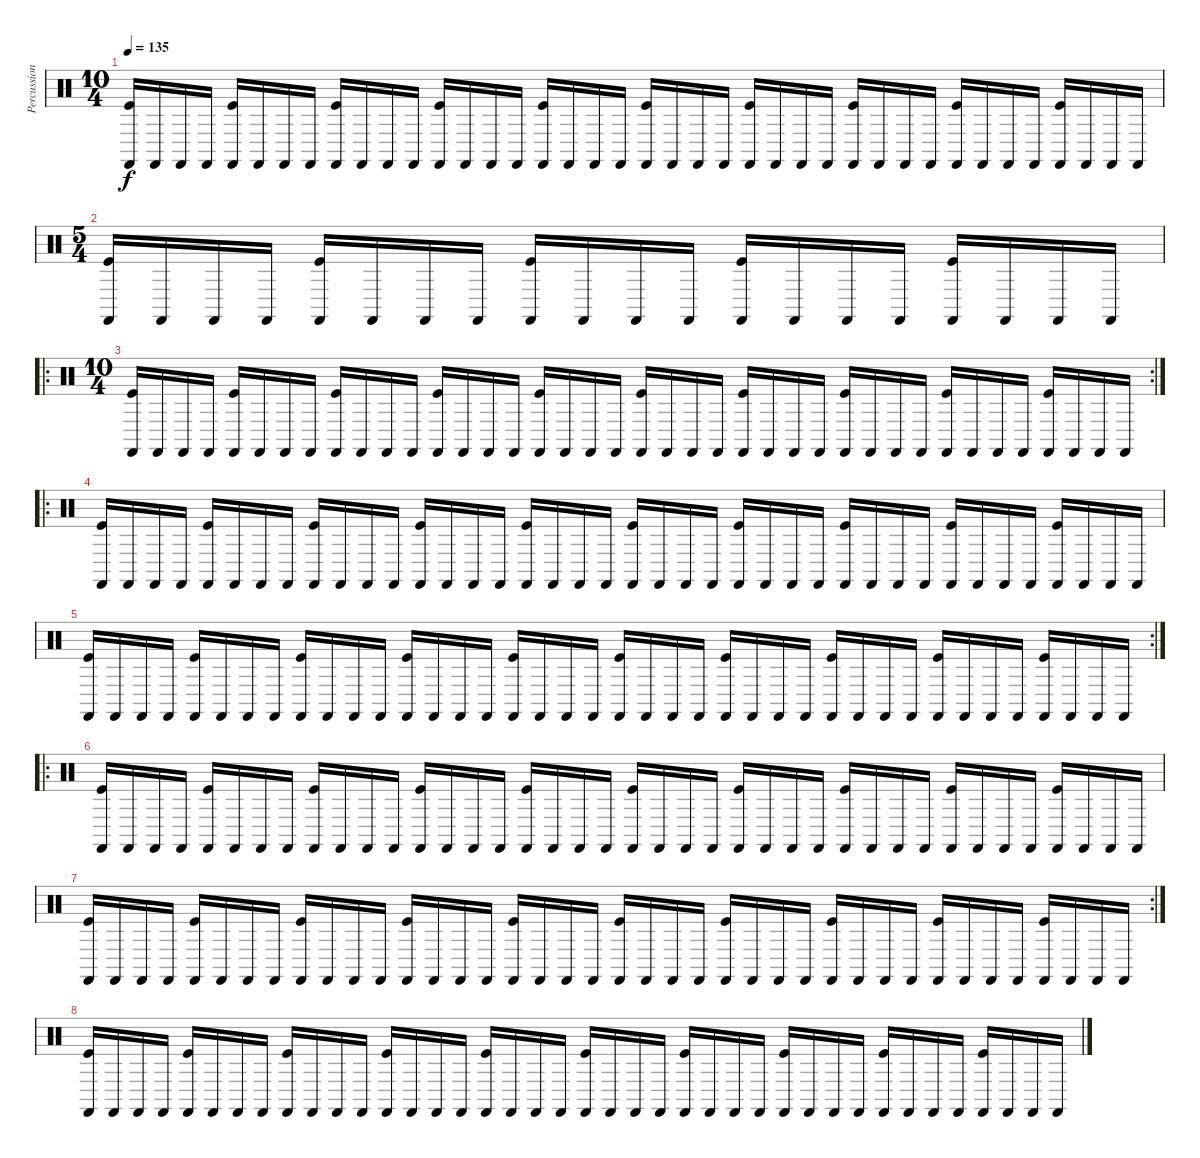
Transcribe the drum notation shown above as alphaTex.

\track ("Percussion" "Percussion") {instrument percussion}
\staff {score}
\articulation defaults
\ts (10 4)
\tempo 135
\clef neutral
\ks c
("Kick (hit)" "Castanets (hit)").16{dy f} "Castanets (hit)".16 "Castanets (hit)".16 "Castanets (hit)".16 ("Kick (hit)" "Castanets (hit)").16 "Castanets (hit)".16 "Castanets (hit)".16 "Castanets (hit)".16 ("Kick (hit)" "Castanets (hit)").16 "Castanets (hit)".16 "Castanets (hit)".16 "Castanets (hit)".16 ("Kick (hit)" "Castanets (hit)").16 "Castanets (hit)".16 "Castanets (hit)".16 "Castanets (hit)".16 ("Kick (hit)" "Castanets (hit)").16 "Castanets (hit)".16 "Castanets (hit)".16 "Castanets (hit)".16 ("Kick (hit)" "Castanets (hit)").16 "Castanets (hit)".16 "Castanets (hit)".16 "Castanets (hit)".16 ("Kick (hit)" "Castanets (hit)").16 "Castanets (hit)".16 "Castanets (hit)".16 "Castanets (hit)".16 ("Kick (hit)" "Castanets (hit)").16 "Castanets (hit)".16 "Castanets (hit)".16 "Castanets (hit)".16 ("Kick (hit)" "Castanets (hit)").16 "Castanets (hit)".16 "Castanets (hit)".16 "Castanets (hit)".16 ("Kick (hit)" "Castanets (hit)").16 "Castanets (hit)".16 "Castanets (hit)".16 "Castanets (hit)".16 |
\ts (5 4)
("Kick (hit)" "Castanets (hit)").16 "Castanets (hit)".16 "Castanets (hit)".16 "Castanets (hit)".16 ("Kick (hit)" "Castanets (hit)").16 "Castanets (hit)".16 "Castanets (hit)".16 "Castanets (hit)".16 ("Kick (hit)" "Castanets (hit)").16 "Castanets (hit)".16 "Castanets (hit)".16 "Castanets (hit)".16 ("Kick (hit)" "Castanets (hit)").16 "Castanets (hit)".16 "Castanets (hit)".16 "Castanets (hit)".16 ("Kick (hit)" "Castanets (hit)").16 "Castanets (hit)".16 "Castanets (hit)".16 "Castanets (hit)".16 |
\ro
\rc 2
\ts (10 4)
("Kick (hit)" "Castanets (hit)").16 "Castanets (hit)".16 "Castanets (hit)".16 "Castanets (hit)".16 ("Kick (hit)" "Castanets (hit)").16 "Castanets (hit)".16 "Castanets (hit)".16 "Castanets (hit)".16 ("Kick (hit)" "Castanets (hit)").16 "Castanets (hit)".16 "Castanets (hit)".16 "Castanets (hit)".16 ("Kick (hit)" "Castanets (hit)").16 "Castanets (hit)".16 "Castanets (hit)".16 "Castanets (hit)".16 ("Kick (hit)" "Castanets (hit)").16 "Castanets (hit)".16 "Castanets (hit)".16 "Castanets (hit)".16 ("Kick (hit)" "Castanets (hit)").16 "Castanets (hit)".16 "Castanets (hit)".16 "Castanets (hit)".16 ("Kick (hit)" "Castanets (hit)").16 "Castanets (hit)".16 "Castanets (hit)".16 "Castanets (hit)".16 ("Kick (hit)" "Castanets (hit)").16 "Castanets (hit)".16 "Castanets (hit)".16 "Castanets (hit)".16 ("Kick (hit)" "Castanets (hit)").16 "Castanets (hit)".16 "Castanets (hit)".16 "Castanets (hit)".16 ("Kick (hit)" "Castanets (hit)").16 "Castanets (hit)".16 "Castanets (hit)".16 "Castanets (hit)".16 |
\ro
("Kick (hit)" "Castanets (hit)").16 "Castanets (hit)".16 "Castanets (hit)".16 "Castanets (hit)".16 ("Kick (hit)" "Castanets (hit)").16 "Castanets (hit)".16 "Castanets (hit)".16 "Castanets (hit)".16 ("Kick (hit)" "Castanets (hit)").16 "Castanets (hit)".16 "Castanets (hit)".16 "Castanets (hit)".16 ("Kick (hit)" "Castanets (hit)").16 "Castanets (hit)".16 "Castanets (hit)".16 "Castanets (hit)".16 ("Kick (hit)" "Castanets (hit)").16 "Castanets (hit)".16 "Castanets (hit)".16 "Castanets (hit)".16 ("Kick (hit)" "Castanets (hit)").16 "Castanets (hit)".16 "Castanets (hit)".16 "Castanets (hit)".16 ("Kick (hit)" "Castanets (hit)").16 "Castanets (hit)".16 "Castanets (hit)".16 "Castanets (hit)".16 ("Kick (hit)" "Castanets (hit)").16 "Castanets (hit)".16 "Castanets (hit)".16 "Castanets (hit)".16 ("Kick (hit)" "Castanets (hit)").16 "Castanets (hit)".16 "Castanets (hit)".16 "Castanets (hit)".16 ("Kick (hit)" "Castanets (hit)").16 "Castanets (hit)".16 "Castanets (hit)".16 "Castanets (hit)".16 |
\rc 2
("Kick (hit)" "Castanets (hit)").16 "Castanets (hit)".16 "Castanets (hit)".16 "Castanets (hit)".16 ("Kick (hit)" "Castanets (hit)").16 "Castanets (hit)".16 "Castanets (hit)".16 "Castanets (hit)".16 ("Kick (hit)" "Castanets (hit)").16 "Castanets (hit)".16 "Castanets (hit)".16 "Castanets (hit)".16 ("Kick (hit)" "Castanets (hit)").16 "Castanets (hit)".16 "Castanets (hit)".16 "Castanets (hit)".16 ("Kick (hit)" "Castanets (hit)").16 "Castanets (hit)".16 "Castanets (hit)".16 "Castanets (hit)".16 ("Kick (hit)" "Castanets (hit)").16 "Castanets (hit)".16 "Castanets (hit)".16 "Castanets (hit)".16 ("Kick (hit)" "Castanets (hit)").16 "Castanets (hit)".16 "Castanets (hit)".16 "Castanets (hit)".16 ("Kick (hit)" "Castanets (hit)").16 "Castanets (hit)".16 "Castanets (hit)".16 "Castanets (hit)".16 ("Kick (hit)" "Castanets (hit)").16 "Castanets (hit)".16 "Castanets (hit)".16 "Castanets (hit)".16 ("Kick (hit)" "Castanets (hit)").16 "Castanets (hit)".16 "Castanets (hit)".16 "Castanets (hit)".16 |
\ro
("Kick (hit)" "Castanets (hit)").16 "Castanets (hit)".16 "Castanets (hit)".16 "Castanets (hit)".16 ("Kick (hit)" "Castanets (hit)").16 "Castanets (hit)".16 "Castanets (hit)".16 "Castanets (hit)".16 ("Kick (hit)" "Castanets (hit)").16 "Castanets (hit)".16 "Castanets (hit)".16 "Castanets (hit)".16 ("Kick (hit)" "Castanets (hit)").16 "Castanets (hit)".16 "Castanets (hit)".16 "Castanets (hit)".16 ("Kick (hit)" "Castanets (hit)").16 "Castanets (hit)".16 "Castanets (hit)".16 "Castanets (hit)".16 ("Kick (hit)" "Castanets (hit)").16 "Castanets (hit)".16 "Castanets (hit)".16 "Castanets (hit)".16 ("Kick (hit)" "Castanets (hit)").16 "Castanets (hit)".16 "Castanets (hit)".16 "Castanets (hit)".16 ("Kick (hit)" "Castanets (hit)").16 "Castanets (hit)".16 "Castanets (hit)".16 "Castanets (hit)".16 ("Kick (hit)" "Castanets (hit)").16 "Castanets (hit)".16 "Castanets (hit)".16 "Castanets (hit)".16 ("Kick (hit)" "Castanets (hit)").16 "Castanets (hit)".16 "Castanets (hit)".16 "Castanets (hit)".16 |
\rc 2
("Kick (hit)" "Castanets (hit)").16 "Castanets (hit)".16 "Castanets (hit)".16 "Castanets (hit)".16 ("Kick (hit)" "Castanets (hit)").16 "Castanets (hit)".16 "Castanets (hit)".16 "Castanets (hit)".16 ("Kick (hit)" "Castanets (hit)").16 "Castanets (hit)".16 "Castanets (hit)".16 "Castanets (hit)".16 ("Kick (hit)" "Castanets (hit)").16 "Castanets (hit)".16 "Castanets (hit)".16 "Castanets (hit)".16 ("Kick (hit)" "Castanets (hit)").16 "Castanets (hit)".16 "Castanets (hit)".16 "Castanets (hit)".16 ("Kick (hit)" "Castanets (hit)").16 "Castanets (hit)".16 "Castanets (hit)".16 "Castanets (hit)".16 ("Kick (hit)" "Castanets (hit)").16 "Castanets (hit)".16 "Castanets (hit)".16 "Castanets (hit)".16 ("Kick (hit)" "Castanets (hit)").16 "Castanets (hit)".16 "Castanets (hit)".16 "Castanets (hit)".16 ("Kick (hit)" "Castanets (hit)").16 "Castanets (hit)".16 "Castanets (hit)".16 "Castanets (hit)".16 ("Kick (hit)" "Castanets (hit)").16 "Castanets (hit)".16 "Castanets (hit)".16 "Castanets (hit)".16 |
("Kick (hit)" "Castanets (hit)").16 "Castanets (hit)".16 "Castanets (hit)".16 "Castanets (hit)".16 ("Kick (hit)" "Castanets (hit)").16 "Castanets (hit)".16 "Castanets (hit)".16 "Castanets (hit)".16 ("Kick (hit)" "Castanets (hit)").16 "Castanets (hit)".16 "Castanets (hit)".16 "Castanets (hit)".16 ("Kick (hit)" "Castanets (hit)").16 "Castanets (hit)".16 "Castanets (hit)".16 "Castanets (hit)".16 ("Kick (hit)" "Castanets (hit)").16 "Castanets (hit)".16 "Castanets (hit)".16 "Castanets (hit)".16 ("Kick (hit)" "Castanets (hit)").16 "Castanets (hit)".16 "Castanets (hit)".16 "Castanets (hit)".16 ("Kick (hit)" "Castanets (hit)").16 "Castanets (hit)".16 "Castanets (hit)".16 "Castanets (hit)".16 ("Kick (hit)" "Castanets (hit)").16 "Castanets (hit)".16 "Castanets (hit)".16 "Castanets (hit)".16 ("Kick (hit)" "Castanets (hit)").16 "Castanets (hit)".16 "Castanets (hit)".16 "Castanets (hit)".16 ("Kick (hit)" "Castanets (hit)").16 "Castanets (hit)".16 "Castanets (hit)".16 "Castanets (hit)".16
